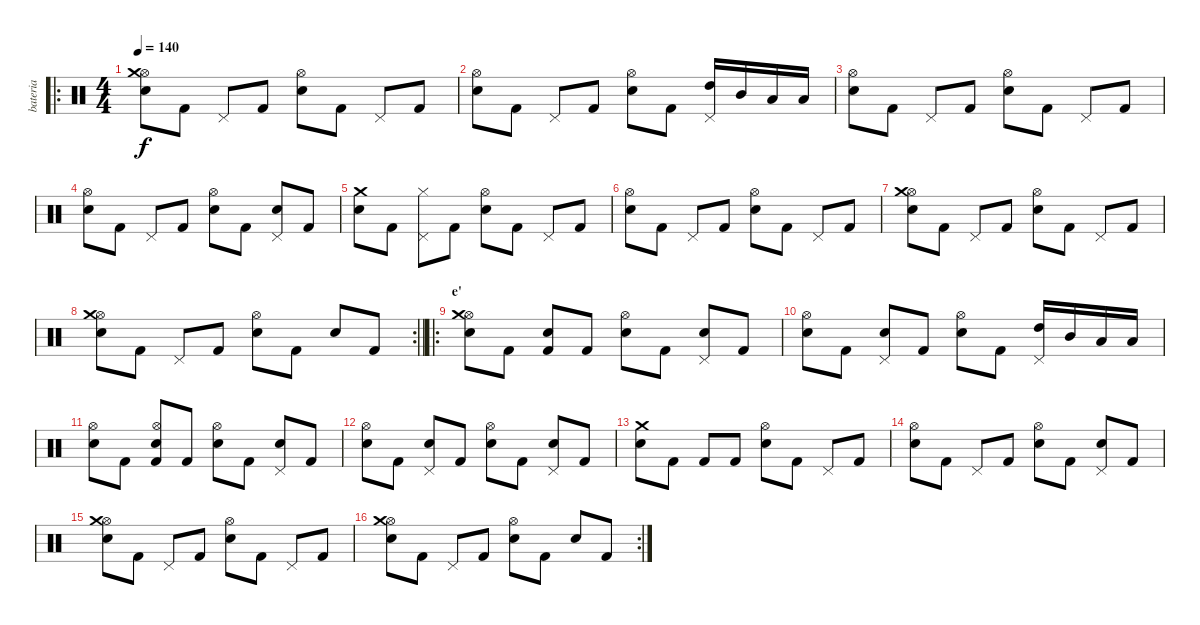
\track ("bateria" "bateria") {instrument percussion}
\staff {score}
\articulation defaults
\ro
\ts (4 4)
\tempo 140
\clef neutral
\ks c
("Electric Snare (hit)" "Hi-Hat (open)" "Crash medium (hit)").8{dy f} "Kick (hit) 2".8 "Pedal Hi-Hat (hit)".8 "Kick (hit) 2".8 ("Electric Snare (hit)" "Hi-Hat (open)").8 "Kick (hit) 2".8 "Pedal Hi-Hat (hit)".8 "Kick (hit) 2".8 |
("Electric Snare (hit)" "Hi-Hat (open)").8 "Kick (hit) 2".8 "Pedal Hi-Hat (hit)".8 "Kick (hit) 2".8 ("Electric Snare (hit)" "Hi-Hat (open)").8 "Kick (hit) 2".8 ("High Tom (hit)" "Pedal Hi-Hat (hit)").16 "Mid Tom (hit)".16 "Low Tom (hit)".16 "Low Tom (hit)".16 |
("Electric Snare (hit)" "Hi-Hat (open)").8 "Kick (hit) 2".8 "Pedal Hi-Hat (hit)".8 "Kick (hit) 2".8 ("Electric Snare (hit)" "Hi-Hat (open)").8 "Kick (hit) 2".8 "Pedal Hi-Hat (hit)".8 "Kick (hit) 2".8 |
("Electric Snare (hit)" "Hi-Hat (open)").8 "Kick (hit) 2".8 "Pedal Hi-Hat (hit)".8 "Kick (hit) 2".8 ("Electric Snare (hit)" "Hi-Hat (open)").8 "Kick (hit) 2".8 ("Electric Snare (hit)" "Pedal Hi-Hat (hit)").8 "Kick (hit) 2".8 |
("Electric Snare (hit)" "Crash medium (hit)").8 "Kick (hit) 2".8 ("Hi-Hat (closed)" "Pedal Hi-Hat (hit)").8 "Kick (hit) 2".8 ("Electric Snare (hit)" "Hi-Hat (open)").8 "Kick (hit) 2".8 "Pedal Hi-Hat (hit)".8 "Kick (hit) 2".8 |
("Electric Snare (hit)" "Hi-Hat (open)").8 "Kick (hit) 2".8 "Pedal Hi-Hat (hit)".8 "Kick (hit) 2".8 ("Electric Snare (hit)" "Hi-Hat (open)").8 "Kick (hit) 2".8 "Pedal Hi-Hat (hit)".8 "Kick (hit) 2".8 |
("Electric Snare (hit)" "Hi-Hat (open)" "Crash medium (hit)").8 "Kick (hit) 2".8 "Pedal Hi-Hat (hit)".8 "Kick (hit) 2".8 ("Electric Snare (hit)" "Hi-Hat (open)").8 "Kick (hit) 2".8 "Pedal Hi-Hat (hit)".8 "Kick (hit) 2".8 |
\rc 2
\barLineRight lightlight
("Electric Snare (hit)" "Hi-Hat (open)" "Crash medium (hit)").8 "Kick (hit) 2".8 "Pedal Hi-Hat (hit)".8 "Kick (hit) 2".8 ("Electric Snare (hit)" "Hi-Hat (open)").8 "Kick (hit) 2".8 "Electric Snare (hit)".8 "Kick (hit) 2".8 |
\ro
\section ("" "e'")
("Electric Snare (hit)" "Hi-Hat (open)" "Crash medium (hit)").8 "Kick (hit) 2".8 ("Kick (hit) 2" "Electric Snare (hit)").8 "Kick (hit) 2".8 ("Electric Snare (hit)" "Hi-Hat (open)").8 "Kick (hit) 2".8 ("Pedal Hi-Hat (hit)" "Electric Snare (hit)").8 "Kick (hit) 2".8 |
("Electric Snare (hit)" "Hi-Hat (open)").8 "Kick (hit) 2".8 ("Pedal Hi-Hat (hit)" "Electric Snare (hit)").8 "Kick (hit) 2".8 ("Electric Snare (hit)" "Hi-Hat (open)").8 "Kick (hit) 2".8 ("High Tom (hit)" "Pedal Hi-Hat (hit)").16 "Mid Tom (hit)".16 "Low Tom (hit)".16 "Low Tom (hit)".16 |
("Electric Snare (hit)" "Hi-Hat (open)").8 "Kick (hit) 2".8 ("Hi-Hat (open)" "Electric Snare (hit)" "Kick (hit) 2").8 "Kick (hit) 2".8 ("Electric Snare (hit)" "Hi-Hat (open)").8 "Kick (hit) 2".8 ("Pedal Hi-Hat (hit)" "Electric Snare (hit)").8 "Kick (hit) 2".8 |
("Electric Snare (hit)" "Hi-Hat (open)").8 "Kick (hit) 2".8 ("Pedal Hi-Hat (hit)" "Electric Snare (hit)").8 "Kick (hit) 2".8 ("Electric Snare (hit)" "Hi-Hat (open)").8 "Kick (hit) 2".8 ("Electric Snare (hit)" "Pedal Hi-Hat (hit)").8 "Kick (hit) 2".8 |
("Electric Snare (hit)" "Crash medium (hit)").8 "Kick (hit) 2".8 "Kick (hit) 2".8 "Kick (hit) 2".8 ("Electric Snare (hit)" "Hi-Hat (open)").8 "Kick (hit) 2".8 "Pedal Hi-Hat (hit)".8 "Kick (hit) 2".8 |
("Electric Snare (hit)" "Hi-Hat (open)").8 "Kick (hit) 2".8 "Pedal Hi-Hat (hit)".8 "Kick (hit) 2".8 ("Electric Snare (hit)" "Hi-Hat (open)").8 "Kick (hit) 2".8 ("Pedal Hi-Hat (hit)" "Electric Snare (hit)").8 "Kick (hit) 2".8 |
("Electric Snare (hit)" "Hi-Hat (open)" "Crash medium (hit)").8 "Kick (hit) 2".8 "Pedal Hi-Hat (hit)".8 "Kick (hit) 2".8 ("Electric Snare (hit)" "Hi-Hat (open)").8 "Kick (hit) 2".8 "Pedal Hi-Hat (hit)".8 "Kick (hit) 2".8 |
\rc 2
("Electric Snare (hit)" "Hi-Hat (open)" "Crash medium (hit)").8 "Kick (hit) 2".8 "Pedal Hi-Hat (hit)".8 "Kick (hit) 2".8 ("Electric Snare (hit)" "Hi-Hat (open)").8 "Kick (hit) 2".8 "Electric Snare (hit)".8 "Kick (hit) 2".8
